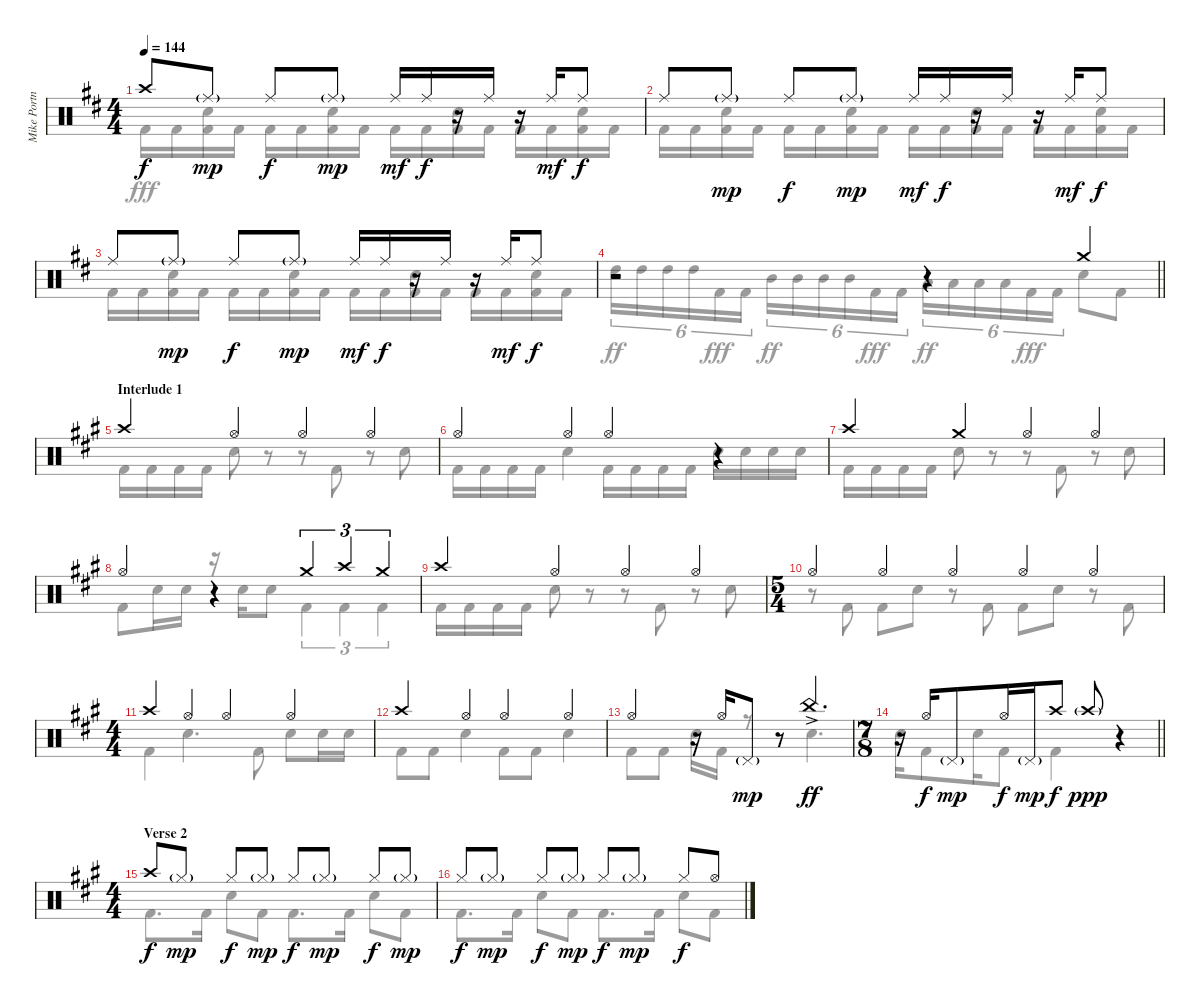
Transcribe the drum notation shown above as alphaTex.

\track ("Mike Portnoy Drums" "Mike Portn") {instrument percussion}
\staff {score}
\articulation defaults
\voice
\ts (4 4)
\tempo 144
\clef neutral
\ks bminor "Crash high (hit)".8{dy f} "Ride (middle)"{g}.8{dy mp} "Ride (middle)".8{dy f} "Ride (middle)"{g}.8{dy mp} "Ride (middle)".16{dy mf} "Ride (middle)".16{dy f}
r.16 "Ride (middle)".16 r.16 "Ride (middle)".16{dy mf} "Ride (middle)".8{dy f} |
"Ride (middle)".8 "Ride (middle)"{g}.8{dy mp} "Ride (middle)".8{dy f} "Ride (middle)"{g}.8{dy mp} "Ride (middle)".16{dy mf} "Ride (middle)".16{dy f} r.16 "Ride (middle)".16 r.16 "Ride (middle)".16{dy mf} "Ride (middle)".8{dy f} |
"Ride (middle)".8 "Ride (middle)"{g}.8{dy mp} "Ride (middle)".8{dy f} "Ride (middle)"{g}.8{dy mp} "Ride (middle)".16{dy mf} "Ride (middle)".16{dy f} r.16 "Ride (middle)".16 r.16 "Ride (middle)".16{dy mf} "Ride (middle)".8{dy f} |
\barLineRight lightlight
r.2 r.4 "Crash medium (hit)".4 |
\section ("" "Interlude 1")
\ks f#minor "Crash high (hit)".4 "Hi-Hat (open)".4 "Hi-Hat (open)".4 "Hi-Hat (open)".4
|
"Hi-Hat (open)".4 "Hi-Hat (open)".4 "Hi-Hat (open)".4 r.4 |
"Crash high (hit)".4 "Crash medium (hit)".4 "Hi-Hat (open)".4 "Hi-Hat (open)".4 |
"Hi-Hat (open)".4 r.4 "Crash medium (hit)".4{tu (3 2)} "Crash high (hit)".4{tu (3 2)} "Crash medium (hit)".4{tu (3 2)} |
"Crash high (hit)".4 "Hi-Hat (open)".4 "Hi-Hat (open)".4 "Hi-Hat (open)".4 |
\ts (5 4)
"Hi-Hat (open)".4 "Hi-Hat (open)".4 "Hi-Hat (open)".4 "Hi-Hat (open)".4 "Hi-Hat (open)".4 |
\ts (4 4)
"Crash high (hit)".4 "Hi-Hat (open)".4 "Hi-Hat (open)".4 "Hi-Hat (open)".4 |
"Crash high (hit)".4 "Hi-Hat (open)".4 "Hi-Hat (open)".4 "Hi-Hat (open)".4 |
"Hi-Hat (open)".4 r.16 "Hi-Hat (open)".16 "Pedal Hi-Hat (hit)"{g}.8{dy mp} r.8 "China (hit)"{ac}.4{d dy ff} |
\ts (7 8)
\barLineRight lightlight
r.16 "Hi-Hat (open)".16{dy f} "Pedal Hi-Hat (hit)"{g}.8{dy mp} "Hi-Hat (open)".16{dy f} "Pedal Hi-Hat (hit)"{g}.16{dy mp} "Crash high (hit)".8{dy f} "Crash high (hit)"{g}.8{dy ppp} r.4 |
\ts (4 4)
\section ("" "Verse 2")
"Crash high (hit)".8{dy f} "Hi-Hat (closed)"{g}.8{dy mp} "Hi-Hat (closed)".8{dy f} "Hi-Hat (closed)"{g}.8{dy mp} "Hi-Hat (closed)".8{dy f} "Hi-Hat (closed)"{g}.8{dy mp} "Hi-Hat (closed)".8{dy f} "Hi-Hat (closed)"{g}.8{dy mp} |
"Hi-Hat (closed)".8{dy f} "Hi-Hat (closed)"{g}.8{dy mp} "Hi-Hat (closed)".8{dy f} "Hi-Hat (closed)"{g}.8{dy mp} "Hi-Hat (closed)".8{dy f} "Hi-Hat (closed)"{g}.8{dy mp} "Hi-Hat (closed)".8{dy f} "Hi-Hat (open)".8
\voice
\clef neutral
\ottava regular
\simile none
\ks bminor "Kick (hit) 2".16{dy fff} "Kick (hit) 2".16
("Snare (hit) 2" "Kick (hit) 2").16 "Kick (hit) 2".16 "Kick (hit) 2".16 "Kick (hit) 2".16 ("Snare (hit) 2" "Kick (hit) 2").16 "Kick (hit) 2".16 "Kick (hit) 2".16 "Kick (hit) 2".16 ("Snare (hit) 2" "Kick (hit) 2").16 "Kick (hit) 2".16 "Kick (hit) 2".16 "Kick (hit) 2".16 ("Snare (hit) 2" "Kick (hit) 2").16 "Kick (hit) 2".16 |
"Kick (hit) 2".16 "Kick (hit) 2".16 ("Snare (hit) 2" "Kick (hit) 2").16 "Kick (hit) 2".16 "Kick (hit) 2".16 "Kick (hit) 2".16 ("Snare (hit) 2" "Kick (hit) 2").16 "Kick (hit) 2".16 "Kick (hit) 2".16 "Kick (hit) 2".16 ("Snare (hit) 2" "Kick (hit) 2").16 "Kick (hit) 2".16 "Kick (hit) 2".16 "Kick (hit) 2".16 ("Snare (hit) 2" "Kick (hit) 2").16 "Kick (hit) 2".16 |
"Kick (hit) 2".16 "Kick (hit) 2".16 ("Snare (hit) 2" "Kick (hit) 2").16 "Kick (hit) 2".16 "Kick (hit) 2".16 "Kick (hit) 2".16 ("Snare (hit) 2" "Kick (hit) 2").16 "Kick (hit) 2".16 "Kick (hit) 2".16 "Kick (hit) 2".16 ("Snare (hit) 2" "Kick (hit) 2").16 "Kick (hit) 2".16 "Kick (hit) 2".16 "Kick (hit) 2".16 ("Snare (hit) 2" "Kick (hit) 2").16 "Kick (hit) 2".16 |
\barLineRight lightlight "High Tom (hit)".16{tu (6 4) dy ff} "High Tom (hit)".16{tu (6 4)} "High Tom (hit)".16{tu (6 4)} "High Tom (hit)".16{tu (6 4)} "Kick (hit) 2".16{tu (6 4) dy fff} "Kick (hit) 2".16{tu (6 4)} "Mid Tom (hit)".16{tu (6 4) dy ff} "Mid Tom (hit)".16{tu (6 4)} "Mid Tom (hit)".16{tu (6 4)} "Mid Tom (hit)".16{tu (6 4)} "Kick (hit) 2".16{tu (6 4) dy fff} "Kick (hit) 2".16{tu (6 4)} "Low Tom (hit)".16{tu (6 4) dy ff} "Low Tom (hit)".16{tu (6 4)} "Low Tom (hit)".16{tu (6 4)} "Low Tom (hit)".16{tu (6 4)} "Kick (hit) 2".16{tu (6 4) dy fff} "Kick (hit) 2".16{tu (6 4)} "Snare (hit) 2".8 "Kick (hit) 2".8
|
\ks f#minor "Kick (hit) 2".16 "Kick (hit) 2".16 "Kick (hit) 2".16 "Kick (hit) 2".16 "Snare (hit) 2".8
r.8 r.8 "Kick (hit) 2".8 r.8 "Snare (hit) 2".8 |
"Kick (hit) 2".16 "Kick (hit) 2".16 "Kick (hit) 2".16 "Kick (hit) 2".16 "Snare (hit) 2".4 "Kick (hit) 2".16 "Kick (hit) 2".16 "Kick (hit) 2".16 "Kick (hit) 2".16 "Snare (hit) 2".16 "Snare (hit) 2".16 "Snare (hit) 2".16 "Snare (hit) 2".16 |
"Kick (hit) 2".16 "Kick (hit) 2".16 "Kick (hit) 2".16 "Kick (hit) 2".16 "Snare (hit) 2".8 r.8 r.8 "Kick (hit) 2".8 r.8 "Snare (hit) 2".8 |
"Kick (hit) 2".8 "Snare (hit) 2".16 "Snare (hit) 2".16 r.16 "Snare (hit) 2".16 "Snare (hit) 2".8 "Kick (hit) 2".4{tu (3 2)} "Kick (hit) 2".4{tu (3 2)} "Kick (hit) 2".4{tu (3 2)} |
"Kick (hit) 2".16 "Kick (hit) 2".16 "Kick (hit) 2".16 "Kick (hit) 2".16 "Snare (hit) 2".8 r.8 r.8 "Kick (hit) 2".8 r.8 "Snare (hit) 2".8 |
r.8 "Kick (hit) 2".8 "Kick (hit) 2".8 "Snare (hit) 2".8 r.8 "Kick (hit) 2".8 "Kick (hit) 2".8 "Snare (hit) 2".8 r.8 "Kick (hit) 2".8 |
"Kick (hit) 2".4 "Snare (hit) 2".4{d} "Kick (hit) 2".8 "Snare (hit) 2".8 "Snare (hit) 2".16 "Snare (hit) 2".16 |
"Kick (hit) 2".8 "Kick (hit) 2".8 "Snare (hit) 2".4 "Kick (hit) 2".8 "Kick (hit) 2".8 "Snare (hit) 2".4 |
"Kick (hit) 2".8 "Kick (hit) 2".8 "Snare (hit) 2".16 "Kick (hit) 2".16 r.8 r.8 "Snare (hit) 2".4{d} |
\barLineRight lightlight "Snare (hit) 2".16 "Kick (hit) 2".8 "Snare (hit) 2".16 "Kick (hit) 2".8 "Kick (hit) 2".4
r.4 |
"Kick (hit) 2".8{d} "Kick (hit) 2".16 "Snare (hit) 2".8 "Kick (hit) 2".8 "Kick (hit) 2".8{d} "Kick (hit) 2".16 "Snare (hit) 2".8 "Kick (hit) 2".8 |
"Kick (hit) 2".8{d} "Kick (hit) 2".16 "Snare (hit) 2".8 "Kick (hit) 2".8 "Kick (hit) 2".8{d} "Kick (hit) 2".16 "Snare (hit) 2".8 "Kick (hit) 2".8
